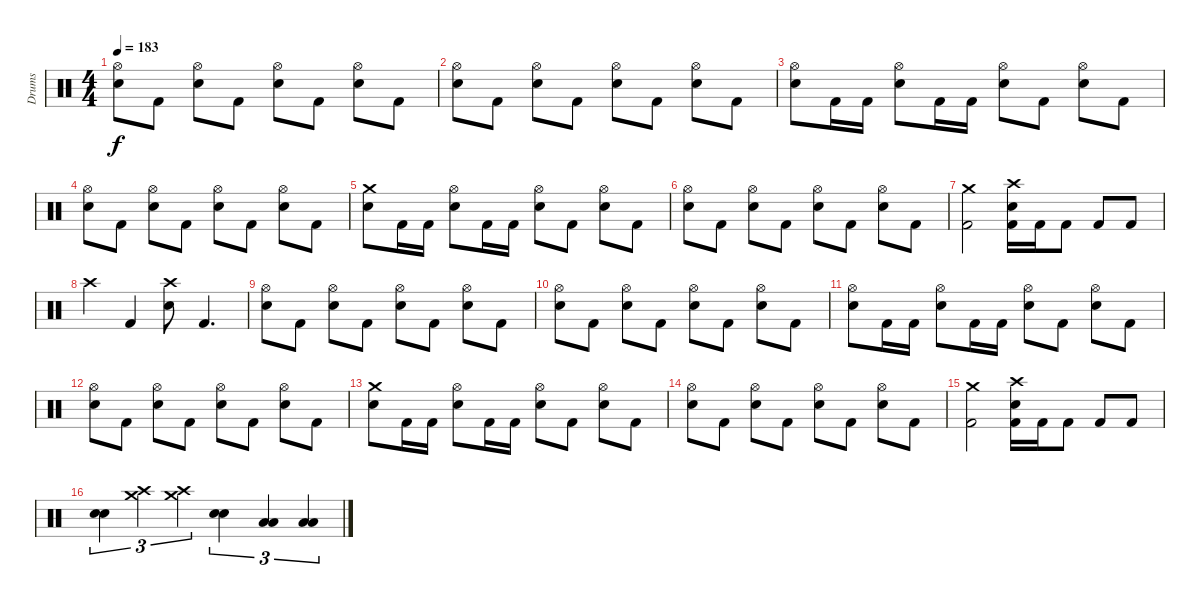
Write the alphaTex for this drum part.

\track ("Drums" "Drums") {instrument percussion}
\staff {score}
\articulation defaults
\ts (4 4)
\tempo 183
\clef neutral
\ks c
("Hi-Hat (open)" "Electric Snare (hit)").8{dy f} "Kick (hit) 2".8 ("Hi-Hat (open)" "Electric Snare (hit)").8 "Kick (hit) 2".8 ("Hi-Hat (open)" "Electric Snare (hit)").8 "Kick (hit) 2".8 ("Hi-Hat (open)" "Electric Snare (hit)").8 "Kick (hit) 2".8 |
("Hi-Hat (open)" "Electric Snare (hit)").8 "Kick (hit) 2".8 ("Hi-Hat (open)" "Electric Snare (hit)").8 "Kick (hit) 2".8 ("Hi-Hat (open)" "Electric Snare (hit)").8 "Kick (hit) 2".8 ("Hi-Hat (open)" "Electric Snare (hit)").8 "Kick (hit) 2".8 |
("Hi-Hat (open)" "Electric Snare (hit)").8 "Kick (hit) 2".16 "Kick (hit) 2".16 ("Hi-Hat (open)" "Electric Snare (hit)").8 "Kick (hit) 2".16 "Kick (hit) 2".16 ("Hi-Hat (open)" "Electric Snare (hit)").8 "Kick (hit) 2".8 ("Hi-Hat (open)" "Electric Snare (hit)").8 "Kick (hit) 2".8 |
("Hi-Hat (open)" "Electric Snare (hit)").8 "Kick (hit) 2".8 ("Hi-Hat (open)" "Electric Snare (hit)").8 "Kick (hit) 2".8 ("Hi-Hat (open)" "Electric Snare (hit)").8 "Kick (hit) 2".8 ("Hi-Hat (open)" "Electric Snare (hit)").8 "Kick (hit) 2".8 |
("Crash medium (hit)" "Electric Snare (hit)").8 "Kick (hit) 2".16 "Kick (hit) 2".16 ("Hi-Hat (open)" "Electric Snare (hit)").8 "Kick (hit) 2".16 "Kick (hit) 2".16 ("Hi-Hat (open)" "Electric Snare (hit)").8 "Kick (hit) 2".8 ("Hi-Hat (open)" "Electric Snare (hit)").8 "Kick (hit) 2".8 |
("Hi-Hat (open)" "Electric Snare (hit)").8 "Kick (hit) 2".8 ("Hi-Hat (open)" "Electric Snare (hit)").8 "Kick (hit) 2".8 ("Hi-Hat (open)" "Electric Snare (hit)").8 "Kick (hit) 2".8 ("Hi-Hat (open)" "Electric Snare (hit)").8 "Kick (hit) 2".8 |
("Crash medium (hit)" "Kick (hit) 2").2 ("Crash high (hit)" "Electric Snare (hit)" "Kick (hit) 2").16 "Kick (hit) 2".16 "Kick (hit) 2".8 "Kick (hit) 2".8 "Kick (hit) 2".8 |
"Crash high (hit)".4 "Kick (hit) 2".4 ("Crash high (hit)" "Electric Snare (hit)").8 "Kick (hit) 2".4{d} |
("Hi-Hat (open)" "Electric Snare (hit)").8 "Kick (hit) 2".8 ("Hi-Hat (open)" "Electric Snare (hit)").8 "Kick (hit) 2".8 ("Hi-Hat (open)" "Electric Snare (hit)").8 "Kick (hit) 2".8 ("Hi-Hat (open)" "Electric Snare (hit)").8 "Kick (hit) 2".8 |
("Hi-Hat (open)" "Electric Snare (hit)").8 "Kick (hit) 2".8 ("Hi-Hat (open)" "Electric Snare (hit)").8 "Kick (hit) 2".8 ("Hi-Hat (open)" "Electric Snare (hit)").8 "Kick (hit) 2".8 ("Hi-Hat (open)" "Electric Snare (hit)").8 "Kick (hit) 2".8 |
("Hi-Hat (open)" "Electric Snare (hit)").8 "Kick (hit) 2".16 "Kick (hit) 2".16 ("Hi-Hat (open)" "Electric Snare (hit)").8 "Kick (hit) 2".16 "Kick (hit) 2".16 ("Hi-Hat (open)" "Electric Snare (hit)").8 "Kick (hit) 2".8 ("Hi-Hat (open)" "Electric Snare (hit)").8 "Kick (hit) 2".8 |
("Hi-Hat (open)" "Electric Snare (hit)").8 "Kick (hit) 2".8 ("Hi-Hat (open)" "Electric Snare (hit)").8 "Kick (hit) 2".8 ("Hi-Hat (open)" "Electric Snare (hit)").8 "Kick (hit) 2".8 ("Hi-Hat (open)" "Electric Snare (hit)").8 "Kick (hit) 2".8 |
("Crash medium (hit)" "Electric Snare (hit)").8 "Kick (hit) 2".16 "Kick (hit) 2".16 ("Hi-Hat (open)" "Electric Snare (hit)").8 "Kick (hit) 2".16 "Kick (hit) 2".16 ("Hi-Hat (open)" "Electric Snare (hit)").8 "Kick (hit) 2".8 ("Hi-Hat (open)" "Electric Snare (hit)").8 "Kick (hit) 2".8 |
("Hi-Hat (open)" "Electric Snare (hit)").8 "Kick (hit) 2".8 ("Hi-Hat (open)" "Electric Snare (hit)").8 "Kick (hit) 2".8 ("Hi-Hat (open)" "Electric Snare (hit)").8 "Kick (hit) 2".8 ("Hi-Hat (open)" "Electric Snare (hit)").8 "Kick (hit) 2".8 |
("Crash medium (hit)" "Kick (hit) 2").2 ("Crash high (hit)" "Electric Snare (hit)" "Kick (hit) 2").16 "Kick (hit) 2".16 "Kick (hit) 2".8 "Kick (hit) 2".8 "Kick (hit) 2".8 |
("Electric Snare (hit)" "Electric Snare (hit)").4{tu (3 2)} ("Crash high (hit)" "Crash medium (hit)").4{tu (3 2)} ("Crash high (hit)" "Crash medium (hit)").4{tu (3 2)} ("Electric Snare (hit)" "Electric Snare (hit)").4{tu (3 2)} ("Low Tom (hit)" "Low Floor Tom (hit)").4{tu (3 2)} ("Low Tom (hit)" "Low Floor Tom (hit)").4{tu (3 2)}
